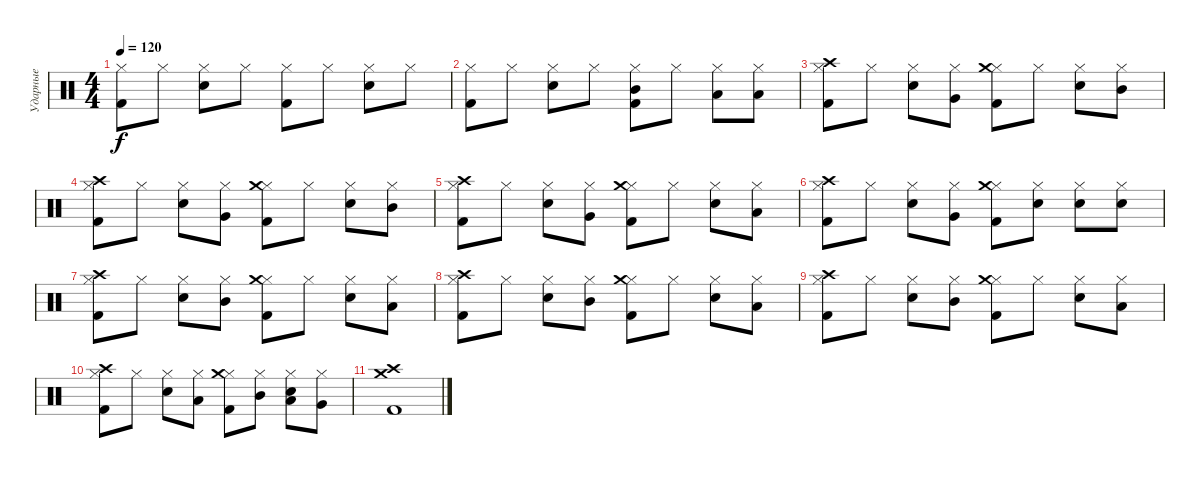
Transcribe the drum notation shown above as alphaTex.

\track ("Ударные" "Ударные") {instrument percussion}
\staff {score}
\articulation defaults
\ts (4 4)
\tempo 120
\clef neutral
\ks c
("Hi-Hat (closed)" "Kick (hit) 2").8{dy f} "Hi-Hat (closed)".8 ("Hi-Hat (closed)" "Snare (hit) 2").8 "Hi-Hat (closed)".8 ("Hi-Hat (closed)" "Kick (hit) 2").8 "Hi-Hat (closed)".8 ("Hi-Hat (closed)" "Snare (hit) 2").8 "Hi-Hat (closed)".8 |
("Hi-Hat (closed)" "Kick (hit) 2").8 "Hi-Hat (closed)".8 ("Hi-Hat (closed)" "Snare (hit) 2").8 "Hi-Hat (closed)".8 ("Hi-Hat (closed)" "Kick (hit) 2" "Mid Tom (hit)").8 "Hi-Hat (closed)".8 ("Hi-Hat (closed)" "Low Floor Tom (hit)").8 ("Hi-Hat (closed)" "Low Tom (hit)").8 |
("Hi-Hat (closed)" "Kick (hit) 2" "Crash high (hit)").8 "Hi-Hat (closed)".8 ("Hi-Hat (closed)" "Snare (hit) 2").8 ("Hi-Hat (closed)" "Very Low Tom (hit)").8 ("Hi-Hat (closed)" "Kick (hit) 2" "Crash medium (hit)").8 "Hi-Hat (closed)".8 ("Hi-Hat (closed)" "Snare (hit) 2").8 ("Hi-Hat (closed)" "Mid Tom (hit)").8 |
("Hi-Hat (closed)" "Kick (hit) 2" "Crash high (hit)").8 "Hi-Hat (closed)".8 ("Hi-Hat (closed)" "Snare (hit) 2").8 ("Hi-Hat (closed)" "Very Low Tom (hit)").8 ("Hi-Hat (closed)" "Kick (hit) 2" "Crash medium (hit)").8 "Hi-Hat (closed)".8 ("Hi-Hat (closed)" "Snare (hit) 2").8 ("Hi-Hat (closed)" "Mid Tom (hit)").8 |
("Hi-Hat (closed)" "Kick (hit) 2" "Crash high (hit)").8 "Hi-Hat (closed)".8 ("Hi-Hat (closed)" "Snare (hit) 2").8 ("Hi-Hat (closed)" "Very Low Tom (hit)").8 ("Hi-Hat (closed)" "Kick (hit) 2" "Crash medium (hit)").8 "Hi-Hat (closed)".8 ("Hi-Hat (closed)" "Snare (hit) 2").8 ("Hi-Hat (closed)" "Low Tom (hit)").8 |
("Hi-Hat (closed)" "Kick (hit) 2" "Crash high (hit)").8 "Hi-Hat (closed)".8 ("Hi-Hat (closed)" "Snare (hit) 2").8 ("Hi-Hat (closed)" "Very Low Tom (hit)").8 ("Hi-Hat (closed)" "Kick (hit) 2" "Crash medium (hit)").8 ("Hi-Hat (closed)" "Snare (hit) 2").8 ("Hi-Hat (closed)" "Snare (hit) 2").8 ("Hi-Hat (closed)" "Snare (hit) 2").8 |
("Hi-Hat (closed)" "Kick (hit) 2" "Crash high (hit)").8 "Hi-Hat (closed)".8 ("Hi-Hat (closed)" "Snare (hit) 2").8 ("Hi-Hat (closed)" "Mid Tom (hit)").8 ("Hi-Hat (closed)" "Kick (hit) 2" "Crash medium (hit)").8 "Hi-Hat (closed)".8 ("Hi-Hat (closed)" "Snare (hit) 2").8 ("Hi-Hat (closed)" "Low Tom (hit)").8 |
("Hi-Hat (closed)" "Kick (hit) 2" "Crash high (hit)").8 "Hi-Hat (closed)".8 ("Hi-Hat (closed)" "Snare (hit) 2").8 ("Hi-Hat (closed)" "Mid Tom (hit)").8 ("Hi-Hat (closed)" "Kick (hit) 2" "Crash medium (hit)").8 "Hi-Hat (closed)".8 ("Hi-Hat (closed)" "Snare (hit) 2").8 ("Hi-Hat (closed)" "Low Tom (hit)").8 |
("Hi-Hat (closed)" "Crash high (hit)" "Kick (hit) 2").8 "Hi-Hat (closed)".8 ("Hi-Hat (closed)" "Snare (hit) 2").8 ("Hi-Hat (closed)" "Mid Tom (hit)").8 ("Hi-Hat (closed)" "Kick (hit) 2" "Crash medium (hit)").8 "Hi-Hat (closed)".8 ("Hi-Hat (closed)" "Snare (hit) 2").8 ("Hi-Hat (closed)" "Low Tom (hit)").8 |
("Hi-Hat (closed)" "Kick (hit) 2" "Crash high (hit)").8 "Hi-Hat (closed)".8 ("Hi-Hat (closed)" "Snare (hit) 2").8 ("Hi-Hat (closed)" "Low Floor Tom (hit)").8 ("Hi-Hat (closed)" "Kick (hit) 2" "Crash medium (hit)").8 ("Hi-Hat (closed)" "Mid Tom (hit)").8 ("Hi-Hat (closed)" "Snare (hit) 2" "Low Tom (hit)").8 ("Hi-Hat (closed)" "Very Low Tom (hit)").8 |
("Crash high (hit)" "Kick (hit) 2" "Crash medium (hit)").1
